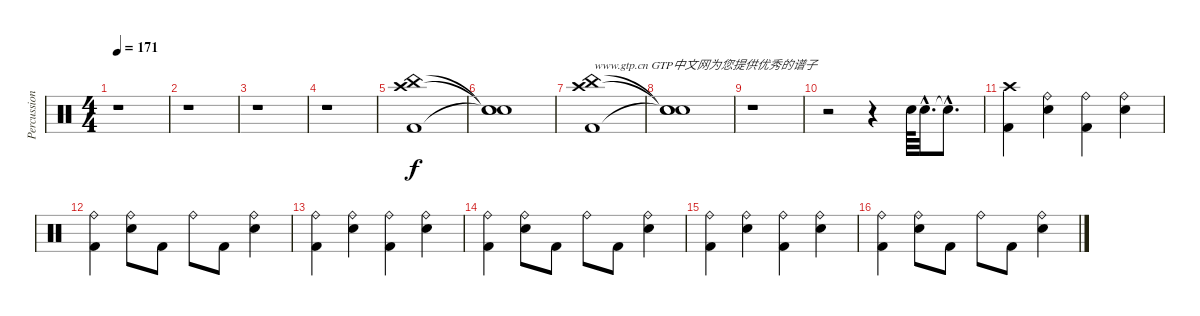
\track ("Percussion" "Percussion") {instrument percussion}
\staff {score}
\articulation defaults
\ts (4 4)
\tempo 171
\clef neutral
\ks c
r.1{dy f} |
r.1 |
r.1 |
r.1 |
("China (hit)" "Crash high (hit)" "Kick (hit) 2").1 |
("Snare (hit)"{t} "Snare (hit)"{t} "Snare (hit)"{t}).1 |
("China (hit)" "Crash high (hit)" "Kick (hit) 2").1{txt "www.gtp.cn GTP中文网为您提供优秀的谱子"} |
("Snare (hit)"{t} "Snare (hit)"{t} "Snare (hit)"{t}).1 |
r.1 |
r.2 r.4 "Metronome (bell)".64 "Metronome (bell)"{hac}.32{d} "Snare (hit)"{hac t}.8{d} |
("Crash high (hit)" "Kick (hit) 2").4 ("Ride (bell)" "Metronome (bell)").4 ("Ride (bell)" "Kick (hit) 2").4 ("Ride (bell)" "Metronome (bell)").4 |
("Ride (bell)" "Kick (hit) 2").4 ("Ride (bell)" "Metronome (bell)").8 "Kick (hit) 2".8 "Ride (bell)".8 "Kick (hit) 2".8 ("Ride (bell)" "Metronome (bell)").4 |
("Ride (bell)" "Kick (hit) 2").4 ("Ride (bell)" "Metronome (bell)").4 ("Ride (bell)" "Kick (hit) 2").4 ("Ride (bell)" "Metronome (bell)").4 |
("Ride (bell)" "Kick (hit) 2").4 ("Ride (bell)" "Metronome (bell)").8 "Kick (hit) 2".8 "Ride (bell)".8 "Kick (hit) 2".8 ("Ride (bell)" "Metronome (bell)").4 |
("Ride (bell)" "Kick (hit) 2").4 ("Ride (bell)" "Metronome (bell)").4 ("Ride (bell)" "Kick (hit) 2").4 ("Ride (bell)" "Metronome (bell)").4 |
("Ride (bell)" "Kick (hit) 2").4 ("Ride (bell)" "Metronome (bell)").8 "Kick (hit) 2".8 "Ride (bell)".8 "Kick (hit) 2".8 ("Ride (bell)" "Metronome (bell)").4
